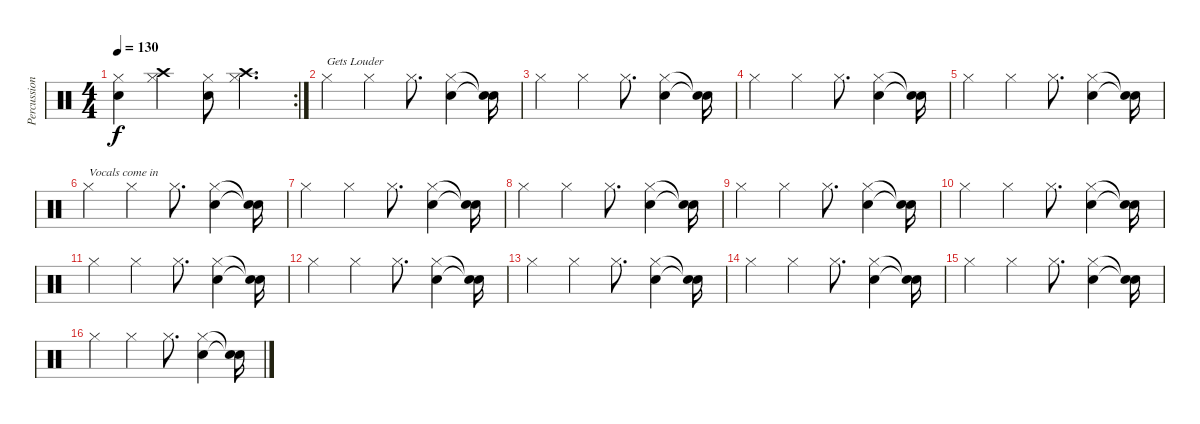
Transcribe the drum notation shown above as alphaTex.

\track ("Percussion" "Percussion") {instrument percussion}
\staff {score}
\articulation defaults
\rc 2
\ts (4 4)
\tempo 130
\clef neutral
\ks c
("Snare (hit) 2" "Hi-Hat (closed)").4{dy f} ("Crash high (hit)" "Hi-Hat (closed)").4 ("Snare (hit) 2" "Hi-Hat (closed)").8 ("Crash high (hit)" "Hi-Hat (closed)").4{d} |
"Hi-Hat (closed)".4{txt "Gets Louder" volume 13} "Hi-Hat (closed)".4 "Hi-Hat (closed)".8{d} ("Hi-Hat (closed)" "Snare (hit) 2").4 ("Snare (hit)"{t} "Snare (hit)"{t}).16 |
"Hi-Hat (closed)".4 "Hi-Hat (closed)".4 "Hi-Hat (closed)".8{d} ("Hi-Hat (closed)" "Snare (hit) 2").4 ("Snare (hit)"{t} "Snare (hit)"{t}).16 |
"Hi-Hat (closed)".4 "Hi-Hat (closed)".4 "Hi-Hat (closed)".8{d} ("Hi-Hat (closed)" "Snare (hit) 2").4 ("Snare (hit)"{t} "Snare (hit)"{t}).16 |
"Hi-Hat (closed)".4 "Hi-Hat (closed)".4 "Hi-Hat (closed)".8{d} ("Hi-Hat (closed)" "Snare (hit) 2").4 ("Snare (hit)"{t} "Snare (hit)"{t}).16 |
"Hi-Hat (closed)".4{txt "Vocals come in"} "Hi-Hat (closed)".4 "Hi-Hat (closed)".8{d} ("Hi-Hat (closed)" "Snare (hit) 2").4 ("Snare (hit)"{t} "Snare (hit)"{t}).16 |
"Hi-Hat (closed)".4 "Hi-Hat (closed)".4 "Hi-Hat (closed)".8{d} ("Hi-Hat (closed)" "Snare (hit) 2").4 ("Snare (hit)"{t} "Snare (hit)"{t}).16 |
"Hi-Hat (closed)".4 "Hi-Hat (closed)".4 "Hi-Hat (closed)".8{d} ("Hi-Hat (closed)" "Snare (hit) 2").4 ("Snare (hit)"{t} "Snare (hit)"{t}).16 |
"Hi-Hat (closed)".4 "Hi-Hat (closed)".4 "Hi-Hat (closed)".8{d} ("Hi-Hat (closed)" "Snare (hit) 2").4 ("Snare (hit)"{t} "Snare (hit)"{t}).16 |
"Hi-Hat (closed)".4 "Hi-Hat (closed)".4 "Hi-Hat (closed)".8{d} ("Hi-Hat (closed)" "Snare (hit) 2").4 ("Snare (hit)"{t} "Snare (hit)"{t}).16 |
"Hi-Hat (closed)".4 "Hi-Hat (closed)".4 "Hi-Hat (closed)".8{d} ("Hi-Hat (closed)" "Snare (hit) 2").4 ("Snare (hit)"{t} "Snare (hit)"{t}).16 |
"Hi-Hat (closed)".4 "Hi-Hat (closed)".4 "Hi-Hat (closed)".8{d} ("Hi-Hat (closed)" "Snare (hit) 2").4 ("Snare (hit)"{t} "Snare (hit)"{t}).16 |
"Hi-Hat (closed)".4 "Hi-Hat (closed)".4 "Hi-Hat (closed)".8{d} ("Hi-Hat (closed)" "Snare (hit) 2").4 ("Snare (hit)"{t} "Snare (hit)"{t}).16 |
"Hi-Hat (closed)".4 "Hi-Hat (closed)".4 "Hi-Hat (closed)".8{d} ("Hi-Hat (closed)" "Snare (hit) 2").4 ("Snare (hit)"{t} "Snare (hit)"{t}).16 |
"Hi-Hat (closed)".4 "Hi-Hat (closed)".4 "Hi-Hat (closed)".8{d} ("Hi-Hat (closed)" "Snare (hit) 2").4 ("Snare (hit)"{t} "Snare (hit)"{t}).16 |
"Hi-Hat (closed)".4 "Hi-Hat (closed)".4 "Hi-Hat (closed)".8{d} ("Hi-Hat (closed)" "Snare (hit) 2").4 ("Snare (hit)"{t} "Snare (hit)"{t}).16
